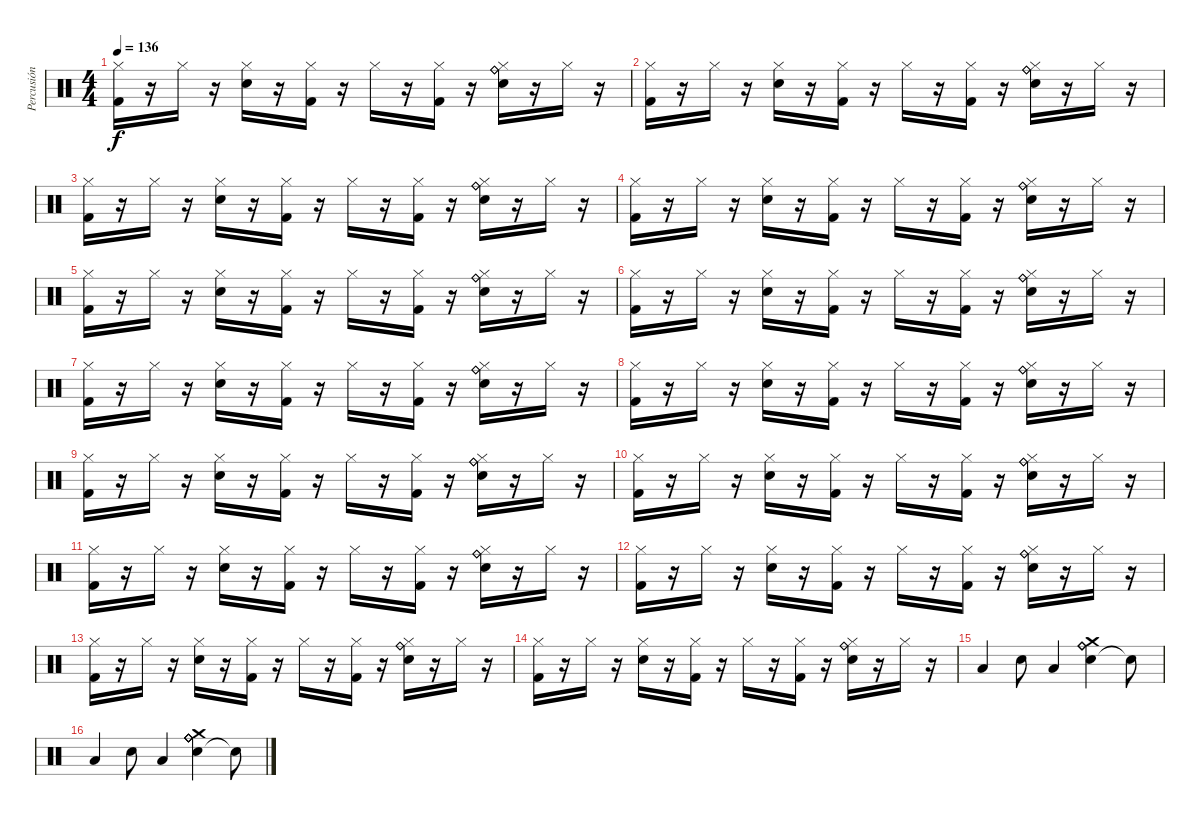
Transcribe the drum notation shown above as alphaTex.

\track ("Percusión" "Percusión") {instrument percussion}
\staff {score}
\articulation defaults
\ts (4 4)
\tempo 136
\clef neutral
\ks c
("Kick (hit) 2" "Hi-Hat (closed)").16{dy f} r.16 "Hi-Hat (closed)".16 r.16 ("Electric Snare (hit)" "Hi-Hat (closed)").16 r.16 ("Kick (hit) 2" "Hi-Hat (closed)").16 r.16 "Hi-Hat (closed)".16 r.16 ("Kick (hit) 2" "Hi-Hat (closed)").16 r.16 ("Electric Snare (hit)" "Hi-Hat (closed)" "Ride (bell)" "Ride (bell)").16 r.16 "Hi-Hat (closed)".16 r.16 |
("Kick (hit) 2" "Hi-Hat (closed)").16 r.16 "Hi-Hat (closed)".16 r.16 ("Electric Snare (hit)" "Hi-Hat (closed)").16 r.16 ("Kick (hit) 2" "Hi-Hat (closed)").16 r.16 "Hi-Hat (closed)".16 r.16 ("Kick (hit) 2" "Hi-Hat (closed)").16 r.16 ("Electric Snare (hit)" "Hi-Hat (closed)" "Ride (bell)" "Ride (bell)").16 r.16 "Hi-Hat (closed)".16 r.16 |
("Kick (hit) 2" "Hi-Hat (closed)").16 r.16 "Hi-Hat (closed)".16 r.16 ("Electric Snare (hit)" "Hi-Hat (closed)").16 r.16 ("Kick (hit) 2" "Hi-Hat (closed)").16 r.16 "Hi-Hat (closed)".16 r.16 ("Kick (hit) 2" "Hi-Hat (closed)").16 r.16 ("Electric Snare (hit)" "Hi-Hat (closed)" "Ride (bell)" "Ride (bell)").16 r.16 "Hi-Hat (closed)".16 r.16 |
("Kick (hit) 2" "Hi-Hat (closed)").16 r.16 "Hi-Hat (closed)".16 r.16 ("Electric Snare (hit)" "Hi-Hat (closed)").16 r.16 ("Kick (hit) 2" "Hi-Hat (closed)").16 r.16 "Hi-Hat (closed)".16 r.16 ("Kick (hit) 2" "Hi-Hat (closed)").16 r.16 ("Electric Snare (hit)" "Hi-Hat (closed)" "Ride (bell)" "Ride (bell)").16 r.16 "Hi-Hat (closed)".16 r.16 |
("Kick (hit) 2" "Hi-Hat (closed)").16 r.16 "Hi-Hat (closed)".16 r.16 ("Electric Snare (hit)" "Hi-Hat (closed)").16 r.16 ("Kick (hit) 2" "Hi-Hat (closed)").16 r.16 "Hi-Hat (closed)".16 r.16 ("Kick (hit) 2" "Hi-Hat (closed)").16 r.16 ("Electric Snare (hit)" "Hi-Hat (closed)" "Ride (bell)" "Ride (bell)").16 r.16 "Hi-Hat (closed)".16 r.16 |
("Kick (hit) 2" "Hi-Hat (closed)").16 r.16 "Hi-Hat (closed)".16 r.16 ("Electric Snare (hit)" "Hi-Hat (closed)").16 r.16 ("Kick (hit) 2" "Hi-Hat (closed)").16 r.16 "Hi-Hat (closed)".16 r.16 ("Kick (hit) 2" "Hi-Hat (closed)").16 r.16 ("Electric Snare (hit)" "Hi-Hat (closed)" "Ride (bell)" "Ride (bell)").16 r.16 "Hi-Hat (closed)".16 r.16 |
("Kick (hit) 2" "Hi-Hat (closed)").16 r.16 "Hi-Hat (closed)".16 r.16 ("Electric Snare (hit)" "Hi-Hat (closed)").16 r.16 ("Kick (hit) 2" "Hi-Hat (closed)").16 r.16 "Hi-Hat (closed)".16 r.16 ("Kick (hit) 2" "Hi-Hat (closed)").16 r.16 ("Electric Snare (hit)" "Hi-Hat (closed)" "Ride (bell)" "Ride (bell)").16 r.16 "Hi-Hat (closed)".16 r.16 |
("Kick (hit) 2" "Hi-Hat (closed)").16 r.16 "Hi-Hat (closed)".16 r.16 ("Electric Snare (hit)" "Hi-Hat (closed)").16 r.16 ("Kick (hit) 2" "Hi-Hat (closed)").16 r.16 "Hi-Hat (closed)".16 r.16 ("Kick (hit) 2" "Hi-Hat (closed)").16 r.16 ("Electric Snare (hit)" "Hi-Hat (closed)" "Ride (bell)" "Ride (bell)").16 r.16 "Hi-Hat (closed)".16 r.16 |
("Kick (hit) 2" "Hi-Hat (closed)").16 r.16 "Hi-Hat (closed)".16 r.16 ("Electric Snare (hit)" "Hi-Hat (closed)").16 r.16 ("Kick (hit) 2" "Hi-Hat (closed)").16 r.16 "Hi-Hat (closed)".16 r.16 ("Kick (hit) 2" "Hi-Hat (closed)").16 r.16 ("Electric Snare (hit)" "Hi-Hat (closed)" "Ride (bell)" "Ride (bell)").16 r.16 "Hi-Hat (closed)".16 r.16 |
("Kick (hit) 2" "Hi-Hat (closed)").16 r.16 "Hi-Hat (closed)".16 r.16 ("Electric Snare (hit)" "Hi-Hat (closed)").16 r.16 ("Kick (hit) 2" "Hi-Hat (closed)").16 r.16 "Hi-Hat (closed)".16 r.16 ("Kick (hit) 2" "Hi-Hat (closed)").16 r.16 ("Electric Snare (hit)" "Hi-Hat (closed)" "Ride (bell)" "Ride (bell)").16 r.16 "Hi-Hat (closed)".16 r.16 |
("Kick (hit) 2" "Hi-Hat (closed)").16 r.16 "Hi-Hat (closed)".16 r.16 ("Electric Snare (hit)" "Hi-Hat (closed)").16 r.16 ("Kick (hit) 2" "Hi-Hat (closed)").16 r.16 "Hi-Hat (closed)".16 r.16 ("Kick (hit) 2" "Hi-Hat (closed)").16 r.16 ("Electric Snare (hit)" "Hi-Hat (closed)" "Ride (bell)" "Ride (bell)").16 r.16 "Hi-Hat (closed)".16 r.16 |
("Kick (hit) 2" "Hi-Hat (closed)").16 r.16 "Hi-Hat (closed)".16 r.16 ("Electric Snare (hit)" "Hi-Hat (closed)").16 r.16 ("Kick (hit) 2" "Hi-Hat (closed)").16 r.16 "Hi-Hat (closed)".16 r.16 ("Kick (hit) 2" "Hi-Hat (closed)").16 r.16 ("Electric Snare (hit)" "Hi-Hat (closed)" "Ride (bell)" "Ride (bell)").16 r.16 "Hi-Hat (closed)".16 r.16 |
("Kick (hit) 2" "Hi-Hat (closed)").16 r.16 "Hi-Hat (closed)".16 r.16 ("Electric Snare (hit)" "Hi-Hat (closed)").16 r.16 ("Kick (hit) 2" "Hi-Hat (closed)").16 r.16 "Hi-Hat (closed)".16 r.16 ("Kick (hit) 2" "Hi-Hat (closed)").16 r.16 ("Electric Snare (hit)" "Hi-Hat (closed)" "Ride (bell)" "Ride (bell)").16 r.16 "Hi-Hat (closed)".16 r.16 |
("Kick (hit) 2" "Hi-Hat (closed)").16 r.16 "Hi-Hat (closed)".16 r.16 ("Electric Snare (hit)" "Hi-Hat (closed)").16 r.16 ("Kick (hit) 2" "Hi-Hat (closed)").16 r.16 "Hi-Hat (closed)".16 r.16 ("Kick (hit) 2" "Hi-Hat (closed)").16 r.16 ("Electric Snare (hit)" "Hi-Hat (closed)" "Ride (bell)" "Ride (bell)").16 r.16 "Hi-Hat (closed)".16 r.16 |
"Low Tom (hit)".4 "Electric Snare (hit)".8 "Low Tom (hit)".4 ("Electric Snare (hit)" "Crash medium (hit)" "Ride (bell)" "Ride (bell)" "Ride (bell)" "Ride (bell)").4 "Snare (hit)"{t}.8 |
"Low Tom (hit)".4 "Electric Snare (hit)".8 "Low Tom (hit)".4 ("Electric Snare (hit)" "Crash medium (hit)" "Ride (bell)" "Ride (bell)" "Ride (bell)" "Ride (bell)").4 "Snare (hit)"{t}.8
